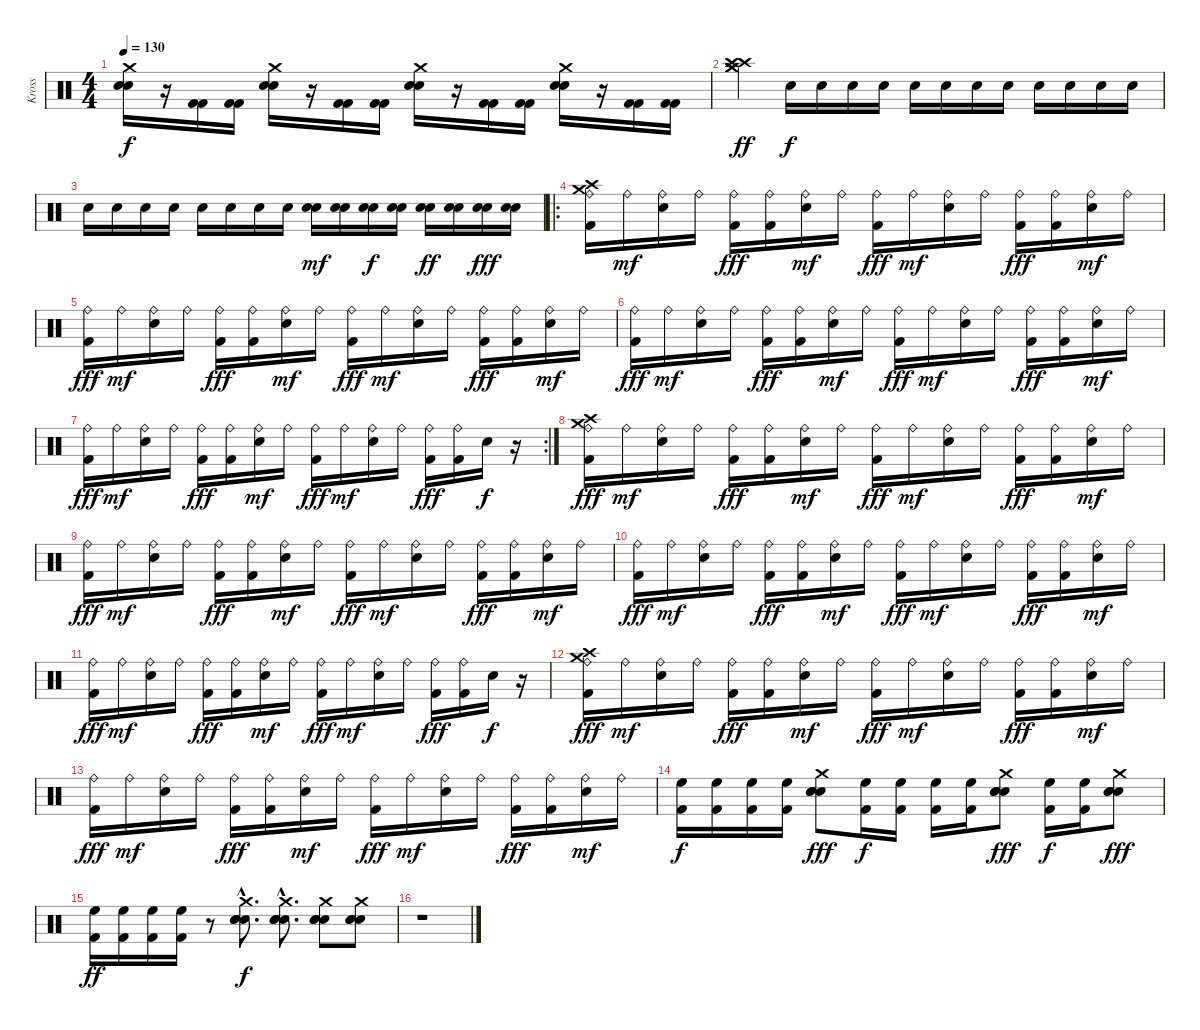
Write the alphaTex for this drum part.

\track ("Kross" "Kross") {instrument percussion}
\staff {score}
\articulation defaults
\ts (4 4)
\tempo 130
\clef neutral
\ks c
("Crash medium (hit)" "Snare (hit) 2" "Snare (hit) 2").16{dy f} r.16 ("Kick (hit) 2" "Kick (hit) 2").16 ("Kick (hit) 2" "Kick (hit) 2").16 ("Crash medium (hit)" "Snare (hit) 2" "Snare (hit) 2").16 r.16 ("Kick (hit) 2" "Kick (hit) 2").16 ("Kick (hit) 2" "Kick (hit) 2").16 ("Crash medium (hit)" "Snare (hit) 2" "Snare (hit) 2").16 r.16 ("Kick (hit) 2" "Kick (hit) 2").16 ("Kick (hit) 2" "Kick (hit) 2").16 ("Crash medium (hit)" "Snare (hit) 2" "Snare (hit) 2").16 r.16 ("Kick (hit) 2" "Kick (hit) 2").16 ("Kick (hit) 2" "Kick (hit) 2").16 |
("Crash medium (hit)" "Crash high (hit)" "Crash medium (hit)" "Crash high (hit)").4{dy ff} "Snare (hit) 2".16{dy f} "Snare (hit) 2".16 "Snare (hit) 2".16 "Snare (hit) 2".16 "Snare (hit) 2".16 "Snare (hit) 2".16 "Snare (hit) 2".16 "Snare (hit) 2".16 "Snare (hit) 2".16 "Snare (hit) 2".16 "Snare (hit) 2".16 "Snare (hit) 2".16 |
"Snare (hit) 2".16 "Snare (hit) 2".16 "Snare (hit) 2".16 "Snare (hit) 2".16 "Snare (hit) 2".16 "Snare (hit) 2".16 "Snare (hit) 2".16 "Snare (hit) 2".16 ("Snare (hit) 2" "Snare (hit) 2").16{dy mf} ("Snare (hit) 2" "Snare (hit) 2").16 ("Snare (hit) 2" "Snare (hit) 2").16{dy f} ("Snare (hit) 2" "Snare (hit) 2").16 ("Snare (hit) 2" "Snare (hit) 2").16{dy ff} ("Snare (hit) 2" "Snare (hit) 2").16 ("Snare (hit) 2" "Snare (hit) 2").16{dy fff} ("Snare (hit) 2" "Snare (hit) 2").16 |
\ro
("Crash high (hit)" "Crash medium (hit)" "Ride (bell)" "Kick (hit) 2").16 "Ride (bell)".16{dy mf} ("Ride (bell)" "Snare (hit) 2").16 "Ride (bell)".16 ("Ride (bell)" "Kick (hit) 2").16{dy fff} ("Ride (bell)" "Kick (hit) 2").16 ("Ride (bell)" "Snare (hit) 2").16{dy mf} "Ride (bell)".16 ("Ride (bell)" "Kick (hit) 2").16{dy fff} "Ride (bell)".16{dy mf} ("Ride (bell)" "Snare (hit) 2").16 "Ride (bell)".16 ("Ride (bell)" "Kick (hit) 2").16{dy fff} ("Ride (bell)" "Kick (hit) 2").16 ("Ride (bell)" "Snare (hit) 2").16{dy mf} "Ride (bell)".16 |
("Ride (bell)" "Kick (hit) 2").16{dy fff} "Ride (bell)".16{dy mf} ("Ride (bell)" "Snare (hit) 2").16 "Ride (bell)".16 ("Ride (bell)" "Kick (hit) 2").16{dy fff} ("Ride (bell)" "Kick (hit) 2").16 ("Ride (bell)" "Snare (hit) 2").16{dy mf} "Ride (bell)".16 ("Ride (bell)" "Kick (hit) 2").16{dy fff} "Ride (bell)".16{dy mf} ("Ride (bell)" "Snare (hit) 2").16 "Ride (bell)".16 ("Ride (bell)" "Kick (hit) 2").16{dy fff} ("Ride (bell)" "Kick (hit) 2").16 ("Ride (bell)" "Snare (hit) 2").16{dy mf} "Ride (bell)".16 |
("Ride (bell)" "Kick (hit) 2").16{dy fff} "Ride (bell)".16{dy mf} ("Ride (bell)" "Snare (hit) 2").16 "Ride (bell)".16 ("Ride (bell)" "Kick (hit) 2").16{dy fff} ("Ride (bell)" "Kick (hit) 2").16 ("Ride (bell)" "Snare (hit) 2").16{dy mf} "Ride (bell)".16 ("Ride (bell)" "Kick (hit) 2").16{dy fff} "Ride (bell)".16{dy mf} ("Ride (bell)" "Snare (hit) 2").16 "Ride (bell)".16 ("Ride (bell)" "Kick (hit) 2").16{dy fff} ("Ride (bell)" "Kick (hit) 2").16 ("Ride (bell)" "Snare (hit) 2").16{dy mf} "Ride (bell)".16 |
\rc 2
("Ride (bell)" "Kick (hit) 2").16{dy fff} "Ride (bell)".16{dy mf} ("Ride (bell)" "Snare (hit) 2").16 "Ride (bell)".16 ("Ride (bell)" "Kick (hit) 2").16{dy fff} ("Ride (bell)" "Kick (hit) 2").16 ("Ride (bell)" "Snare (hit) 2").16{dy mf} "Ride (bell)".16 ("Ride (bell)" "Kick (hit) 2").16{dy fff} "Ride (bell)".16{dy mf} ("Ride (bell)" "Snare (hit) 2").16 "Ride (bell)".16 ("Ride (bell)" "Kick (hit) 2").16{dy fff} ("Ride (bell)" "Kick (hit) 2").16 "Snare (hit) 2".16{dy f} r.16 |
("Crash high (hit)" "Crash medium (hit)" "Ride (bell)" "Kick (hit) 2").16{dy fff} "Ride (bell)".16{dy mf} ("Ride (bell)" "Snare (hit) 2").16 "Ride (bell)".16 ("Ride (bell)" "Kick (hit) 2").16{dy fff} ("Ride (bell)" "Kick (hit) 2").16 ("Ride (bell)" "Snare (hit) 2").16{dy mf} "Ride (bell)".16 ("Ride (bell)" "Kick (hit) 2").16{dy fff} "Ride (bell)".16{dy mf} ("Ride (bell)" "Snare (hit) 2").16 "Ride (bell)".16 ("Ride (bell)" "Kick (hit) 2").16{dy fff} ("Ride (bell)" "Kick (hit) 2").16 ("Ride (bell)" "Snare (hit) 2").16{dy mf} "Ride (bell)".16 |
("Ride (bell)" "Kick (hit) 2").16{dy fff} "Ride (bell)".16{dy mf} ("Ride (bell)" "Snare (hit) 2").16 "Ride (bell)".16 ("Ride (bell)" "Kick (hit) 2").16{dy fff} ("Ride (bell)" "Kick (hit) 2").16 ("Ride (bell)" "Snare (hit) 2").16{dy mf} "Ride (bell)".16 ("Ride (bell)" "Kick (hit) 2").16{dy fff} "Ride (bell)".16{dy mf} ("Ride (bell)" "Snare (hit) 2").16 "Ride (bell)".16 ("Ride (bell)" "Kick (hit) 2").16{dy fff} ("Ride (bell)" "Kick (hit) 2").16 ("Ride (bell)" "Snare (hit) 2").16{dy mf} "Ride (bell)".16 |
("Ride (bell)" "Kick (hit) 2").16{dy fff} "Ride (bell)".16{dy mf} ("Ride (bell)" "Snare (hit) 2").16 "Ride (bell)".16 ("Ride (bell)" "Kick (hit) 2").16{dy fff} ("Ride (bell)" "Kick (hit) 2").16 ("Ride (bell)" "Snare (hit) 2").16{dy mf} "Ride (bell)".16 ("Ride (bell)" "Kick (hit) 2").16{dy fff} "Ride (bell)".16{dy mf} ("Ride (bell)" "Snare (hit) 2").16 "Ride (bell)".16 ("Ride (bell)" "Kick (hit) 2").16{dy fff} ("Ride (bell)" "Kick (hit) 2").16 ("Ride (bell)" "Snare (hit) 2").16{dy mf} "Ride (bell)".16 |
("Ride (bell)" "Kick (hit) 2").16{dy fff} "Ride (bell)".16{dy mf} ("Ride (bell)" "Snare (hit) 2").16 "Ride (bell)".16 ("Ride (bell)" "Kick (hit) 2").16{dy fff} ("Ride (bell)" "Kick (hit) 2").16 ("Ride (bell)" "Snare (hit) 2").16{dy mf} "Ride (bell)".16 ("Ride (bell)" "Kick (hit) 2").16{dy fff} "Ride (bell)".16{dy mf} ("Ride (bell)" "Snare (hit) 2").16 "Ride (bell)".16 ("Ride (bell)" "Kick (hit) 2").16{dy fff} ("Ride (bell)" "Kick (hit) 2").16 "Snare (hit) 2".16{dy f} r.16 |
("Crash high (hit)" "Crash medium (hit)" "Ride (bell)" "Kick (hit) 2").16{dy fff} "Ride (bell)".16{dy mf} ("Ride (bell)" "Snare (hit) 2").16 "Ride (bell)".16 ("Ride (bell)" "Kick (hit) 2").16{dy fff} ("Ride (bell)" "Kick (hit) 2").16 ("Ride (bell)" "Snare (hit) 2").16{dy mf} "Ride (bell)".16 ("Ride (bell)" "Kick (hit) 2").16{dy fff} "Ride (bell)".16{dy mf} ("Ride (bell)" "Snare (hit) 2").16 "Ride (bell)".16 ("Ride (bell)" "Kick (hit) 2").16{dy fff} ("Ride (bell)" "Kick (hit) 2").16 ("Ride (bell)" "Snare (hit) 2").16{dy mf} "Ride (bell)".16 |
("Ride (bell)" "Kick (hit) 2").16{dy fff} "Ride (bell)".16{dy mf} ("Ride (bell)" "Snare (hit) 2").16 "Ride (bell)".16 ("Ride (bell)" "Kick (hit) 2").16{dy fff} ("Ride (bell)" "Kick (hit) 2").16 ("Ride (bell)" "Snare (hit) 2").16{dy mf} "Ride (bell)".16 ("Ride (bell)" "Kick (hit) 2").16{dy fff} "Ride (bell)".16{dy mf} ("Ride (bell)" "Snare (hit) 2").16 "Ride (bell)".16 ("Ride (bell)" "Kick (hit) 2").16{dy fff} ("Ride (bell)" "Kick (hit) 2").16 ("Ride (bell)" "Snare (hit) 2").16{dy mf} "Ride (bell)".16 |
("High Floor Tom (hit)" "Kick (hit) 2").16{dy f} ("High Floor Tom (hit)" "Kick (hit) 2").16 ("High Floor Tom (hit)" "Kick (hit) 2").16 ("High Floor Tom (hit)" "Kick (hit) 2").16 ("Crash medium (hit)" "Snare (hit) 2" "Snare (hit) 2" "Snare (hit) 2").8{dy fff} ("High Floor Tom (hit)" "Kick (hit) 2").16{dy f} ("High Floor Tom (hit)" "Kick (hit) 2").16 ("High Floor Tom (hit)" "Kick (hit) 2").16 ("High Floor Tom (hit)" "Kick (hit) 2").16 ("Crash medium (hit)" "Snare (hit) 2" "Snare (hit) 2" "Snare (hit) 2").8{dy fff} ("High Floor Tom (hit)" "Kick (hit) 2").16{dy f} ("High Floor Tom (hit)" "Kick (hit) 2").16 ("Crash medium (hit)" "Snare (hit) 2" "Snare (hit) 2" "Snare (hit) 2").8{dy fff} |
("High Floor Tom (hit)" "Kick (hit) 2").16{dy ff} ("High Floor Tom (hit)" "Kick (hit) 2").16 ("High Floor Tom (hit)" "Kick (hit) 2").16 ("High Floor Tom (hit)" "Kick (hit) 2").16 r.8 ("Crash medium (hit)"{hac} "Snare (hit) 2"{hac} "Snare (hit) 2"{hac} "Snare (hit) 2"{hac}).8{d dy f} ("Crash medium (hit)"{hac} "Snare (hit) 2"{hac} "Snare (hit) 2"{hac} "Snare (hit) 2"{hac}).8{d} ("Crash medium (hit)" "Snare (hit) 2" "Snare (hit) 2" "Snare (hit) 2").8 ("Crash medium (hit)" "Snare (hit) 2" "Snare (hit) 2" "Snare (hit) 2").8 |
r.1
